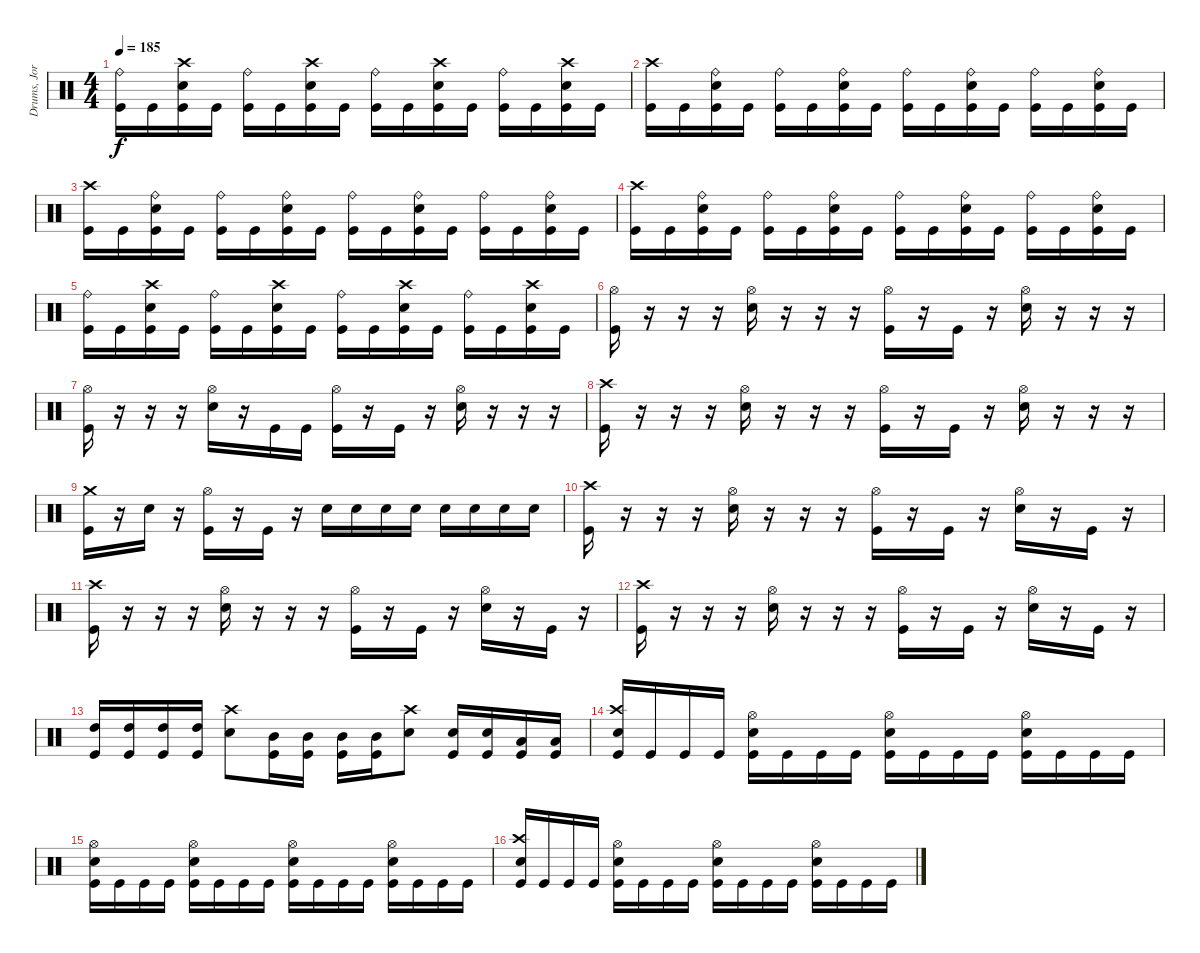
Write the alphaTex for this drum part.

\track ("Drums, Jorye Sáez" "Drums, Jor") {instrument percussion}
\staff {score}
\articulation defaults
\ts (4 4)
\tempo 185
\clef neutral
\ks c
("Ride (bell)" "Kick (hit)").16{dy f} "Kick (hit)".16 ("Crash high (hit)" "Electric Snare (hit)" "Kick (hit)").16 "Kick (hit)".16 ("Ride (bell)" "Kick (hit)").16 "Kick (hit)".16 ("Crash high (hit)" "Electric Snare (hit)" "Kick (hit)").16 "Kick (hit)".16 ("Ride (bell)" "Kick (hit)").16 "Kick (hit)".16 ("Crash high (hit)" "Electric Snare (hit)" "Kick (hit)").16 "Kick (hit)".16 ("Ride (bell)" "Kick (hit)").16 "Kick (hit)".16 ("Crash high (hit)" "Electric Snare (hit)" "Kick (hit)").16 "Kick (hit)".16 |
("Crash high (hit)" "Kick (hit)").16 "Kick (hit)".16 ("Ride (bell)" "Electric Snare (hit)" "Kick (hit)").16 "Kick (hit)".16 ("Ride (bell)" "Kick (hit)").16 "Kick (hit)".16 ("Ride (bell)" "Electric Snare (hit)" "Kick (hit)").16 "Kick (hit)".16 ("Ride (bell)" "Kick (hit)").16 "Kick (hit)".16 ("Ride (bell)" "Electric Snare (hit)" "Kick (hit)").16 "Kick (hit)".16 ("Ride (bell)" "Kick (hit)").16 "Kick (hit)".16 ("Ride (bell)" "Electric Snare (hit)" "Kick (hit)").16 "Kick (hit)".16 |
("Crash high (hit)" "Kick (hit)").16 "Kick (hit)".16 ("Ride (bell)" "Electric Snare (hit)" "Kick (hit)").16 "Kick (hit)".16 ("Ride (bell)" "Kick (hit)").16 "Kick (hit)".16 ("Ride (bell)" "Electric Snare (hit)" "Kick (hit)").16 "Kick (hit)".16 ("Ride (bell)" "Kick (hit)").16 "Kick (hit)".16 ("Ride (bell)" "Electric Snare (hit)" "Kick (hit)").16 "Kick (hit)".16 ("Ride (bell)" "Kick (hit)").16 "Kick (hit)".16 ("Ride (bell)" "Electric Snare (hit)" "Kick (hit)").16 "Kick (hit)".16 |
("Crash high (hit)" "Kick (hit)").16 "Kick (hit)".16 ("Ride (bell)" "Electric Snare (hit)" "Kick (hit)").16 "Kick (hit)".16 ("Ride (bell)" "Kick (hit)").16 "Kick (hit)".16 ("Ride (bell)" "Electric Snare (hit)" "Kick (hit)").16 "Kick (hit)".16 ("Ride (bell)" "Kick (hit)").16 "Kick (hit)".16 ("Ride (bell)" "Electric Snare (hit)" "Kick (hit)").16 "Kick (hit)".16 ("Ride (bell)" "Kick (hit)").16 "Kick (hit)".16 ("Ride (bell)" "Electric Snare (hit)" "Kick (hit)").16 "Kick (hit)".16 |
("Ride (bell)" "Kick (hit)").16 "Kick (hit)".16 ("Crash high (hit)" "Electric Snare (hit)" "Kick (hit)").16 "Kick (hit)".16 ("Ride (bell)" "Kick (hit)").16 "Kick (hit)".16 ("Crash high (hit)" "Electric Snare (hit)" "Kick (hit)").16 "Kick (hit)".16 ("Ride (bell)" "Kick (hit)").16 "Kick (hit)".16 ("Crash high (hit)" "Electric Snare (hit)" "Kick (hit)").16 "Kick (hit)".16 ("Ride (bell)" "Kick (hit)").16 "Kick (hit)".16 ("Crash high (hit)" "Electric Snare (hit)" "Kick (hit)").16 "Kick (hit)".16 |
("Hi-Hat (open)" "Kick (hit)").16 r.16 r.16 r.16 ("Hi-Hat (open)" "Electric Snare (hit)").16 r.16 r.16 r.16 ("Hi-Hat (open)" "Kick (hit)").16 r.16 "Kick (hit)".16 r.16 ("Hi-Hat (open)" "Electric Snare (hit)").16 r.16 r.16 r.16 |
("Hi-Hat (open)" "Kick (hit)").16 r.16 r.16 r.16 ("Hi-Hat (open)" "Electric Snare (hit)").16 r.16 "Kick (hit)".16 "Kick (hit)".16 ("Hi-Hat (open)" "Kick (hit)").16 r.16 "Kick (hit)".16 r.16 ("Hi-Hat (open)" "Electric Snare (hit)").16 r.16 r.16 r.16 |
("Crash high (hit)" "Kick (hit)").16 r.16 r.16 r.16 ("Hi-Hat (open)" "Electric Snare (hit)").16 r.16 r.16 r.16 ("Hi-Hat (open)" "Kick (hit)").16 r.16 "Kick (hit)".16 r.16 ("Hi-Hat (open)" "Electric Snare (hit)").16 r.16 r.16 r.16 |
("Crash medium (hit)" "Kick (hit)").16 r.16 "Electric Snare (hit)".16 r.16 ("Hi-Hat (open)" "Kick (hit)").16 r.16 "Kick (hit)".16 r.16 "Electric Snare (hit)".16 "Electric Snare (hit)".16 "Electric Snare (hit)".16 "Electric Snare (hit)".16 "Electric Snare (hit)".16 "Electric Snare (hit)".16 "Electric Snare (hit)".16 "Electric Snare (hit)".16 |
("Crash high (hit)" "Kick (hit)").16 r.16 r.16 r.16 ("Hi-Hat (open)" "Electric Snare (hit)").16 r.16 r.16 r.16 ("Hi-Hat (open)" "Kick (hit)").16 r.16 "Kick (hit)".16 r.16 ("Hi-Hat (open)" "Electric Snare (hit)").16 r.16 "Kick (hit)".16 r.16 |
("Crash high (hit)" "Kick (hit)").16 r.16 r.16 r.16 ("Hi-Hat (open)" "Electric Snare (hit)").16 r.16 r.16 r.16 ("Hi-Hat (open)" "Kick (hit)").16 r.16 "Kick (hit)".16 r.16 ("Hi-Hat (open)" "Electric Snare (hit)").16 r.16 "Kick (hit)".16 r.16 |
("Crash high (hit)" "Kick (hit)").16 r.16 r.16 r.16 ("Hi-Hat (open)" "Electric Snare (hit)").16 r.16 r.16 r.16 ("Hi-Hat (open)" "Kick (hit)").16 r.16 "Kick (hit)".16 r.16 ("Hi-Hat (open)" "Electric Snare (hit)").16 r.16 "Kick (hit)".16 r.16 |
("Kick (hit)" "High Tom (hit)").16 ("Kick (hit)" "High Tom (hit)").16 ("Kick (hit)" "High Tom (hit)").16 ("Kick (hit)" "High Tom (hit)").16 ("Electric Snare (hit)" "Crash high (hit)").8 ("Kick (hit)" "Mid Tom (hit)").16 ("Kick (hit)" "Mid Tom (hit)").16 ("Kick (hit)" "Mid Tom (hit)").16 ("Kick (hit)" "Mid Tom (hit)").16 ("Electric Snare (hit)" "Crash high (hit)").8 ("Kick (hit)" "Electric Snare (hit)").16 ("Kick (hit)" "Electric Snare (hit)").16 ("Kick (hit)" "Low Tom (hit)").16 ("Kick (hit)" "Low Tom (hit)").16 |
("Kick (hit)" "Electric Snare (hit)" "Crash high (hit)").16 "Kick (hit)".16 "Kick (hit)".16 "Kick (hit)".16 ("Kick (hit)" "Electric Snare (hit)" "Hi-Hat (open)").16 "Kick (hit)".16 "Kick (hit)".16 "Kick (hit)".16 ("Kick (hit)" "Electric Snare (hit)" "Hi-Hat (open)").16 "Kick (hit)".16 "Kick (hit)".16 "Kick (hit)".16 ("Kick (hit)" "Electric Snare (hit)" "Hi-Hat (open)").16 "Kick (hit)".16 "Kick (hit)".16 "Kick (hit)".16 |
("Kick (hit)" "Electric Snare (hit)" "Hi-Hat (open)").16 "Kick (hit)".16 "Kick (hit)".16 "Kick (hit)".16 ("Kick (hit)" "Electric Snare (hit)" "Hi-Hat (open)").16 "Kick (hit)".16 "Kick (hit)".16 "Kick (hit)".16 ("Kick (hit)" "Electric Snare (hit)" "Hi-Hat (open)").16 "Kick (hit)".16 "Kick (hit)".16 "Kick (hit)".16 ("Kick (hit)" "Electric Snare (hit)" "Hi-Hat (open)").16 "Kick (hit)".16 "Kick (hit)".16 "Kick (hit)".16 |
("Kick (hit)" "Electric Snare (hit)" "Crash high (hit)").16 "Kick (hit)".16 "Kick (hit)".16 "Kick (hit)".16 ("Kick (hit)" "Electric Snare (hit)" "Hi-Hat (open)").16 "Kick (hit)".16 "Kick (hit)".16 "Kick (hit)".16 ("Kick (hit)" "Electric Snare (hit)" "Hi-Hat (open)").16 "Kick (hit)".16 "Kick (hit)".16 "Kick (hit)".16 ("Kick (hit)" "Electric Snare (hit)" "Hi-Hat (open)").16 "Kick (hit)".16 "Kick (hit)".16 "Kick (hit)".16
